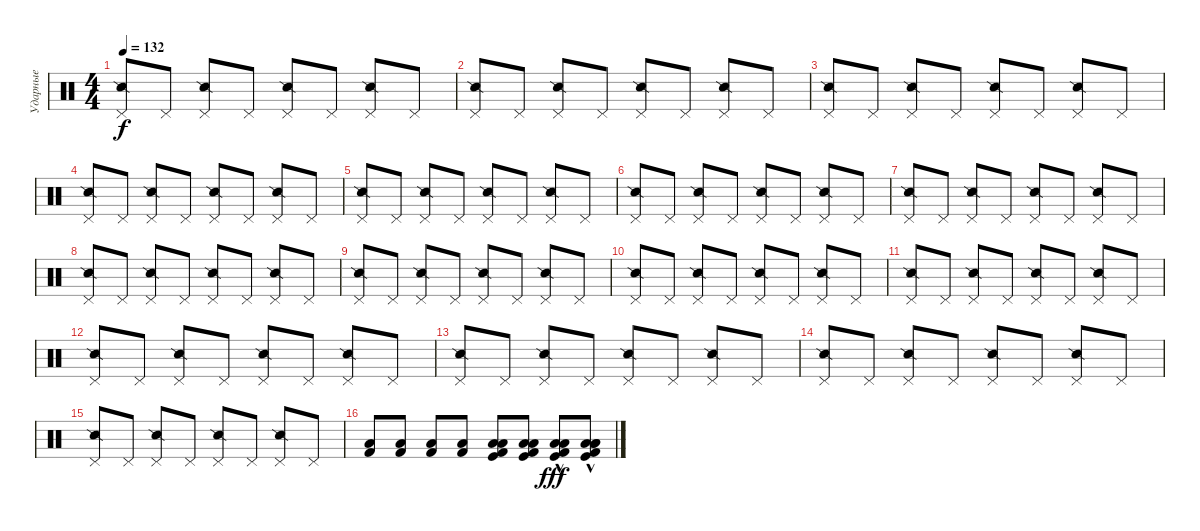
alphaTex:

\track ("Ударные" "Ударные") {instrument percussion}
\staff {score}
\articulation defaults
\ts (4 4)
\tempo 132
\clef neutral
\ks c
("Snare (side stick) 2" "Pedal Hi-Hat (hit)").8{dy f} "Pedal Hi-Hat (hit)".8 ("Pedal Hi-Hat (hit)" "Snare (side stick) 2").8 "Pedal Hi-Hat (hit)".8 ("Pedal Hi-Hat (hit)" "Snare (side stick) 2").8 "Pedal Hi-Hat (hit)".8 ("Pedal Hi-Hat (hit)" "Snare (side stick) 2").8 "Pedal Hi-Hat (hit)".8 |
("Snare (side stick) 2" "Pedal Hi-Hat (hit)").8 "Pedal Hi-Hat (hit)".8 ("Pedal Hi-Hat (hit)" "Snare (side stick) 2").8 "Pedal Hi-Hat (hit)".8 ("Pedal Hi-Hat (hit)" "Snare (side stick) 2").8 "Pedal Hi-Hat (hit)".8 ("Pedal Hi-Hat (hit)" "Snare (side stick) 2").8 "Pedal Hi-Hat (hit)".8 |
("Snare (side stick) 2" "Pedal Hi-Hat (hit)").8 "Pedal Hi-Hat (hit)".8 ("Pedal Hi-Hat (hit)" "Snare (side stick) 2").8 "Pedal Hi-Hat (hit)".8 ("Pedal Hi-Hat (hit)" "Snare (side stick) 2").8 "Pedal Hi-Hat (hit)".8 ("Pedal Hi-Hat (hit)" "Snare (side stick) 2").8 "Pedal Hi-Hat (hit)".8 |
("Snare (side stick) 2" "Pedal Hi-Hat (hit)").8 "Pedal Hi-Hat (hit)".8 ("Pedal Hi-Hat (hit)" "Snare (side stick) 2").8 "Pedal Hi-Hat (hit)".8 ("Pedal Hi-Hat (hit)" "Snare (side stick) 2").8 "Pedal Hi-Hat (hit)".8 ("Pedal Hi-Hat (hit)" "Snare (side stick) 2").8 "Pedal Hi-Hat (hit)".8 |
("Snare (side stick) 2" "Pedal Hi-Hat (hit)").8 "Pedal Hi-Hat (hit)".8 ("Pedal Hi-Hat (hit)" "Snare (side stick) 2").8 "Pedal Hi-Hat (hit)".8 ("Pedal Hi-Hat (hit)" "Snare (side stick) 2").8 "Pedal Hi-Hat (hit)".8 ("Pedal Hi-Hat (hit)" "Snare (side stick) 2").8 "Pedal Hi-Hat (hit)".8 |
("Snare (side stick) 2" "Pedal Hi-Hat (hit)").8 "Pedal Hi-Hat (hit)".8 ("Pedal Hi-Hat (hit)" "Snare (side stick) 2").8 "Pedal Hi-Hat (hit)".8 ("Pedal Hi-Hat (hit)" "Snare (side stick) 2").8 "Pedal Hi-Hat (hit)".8 ("Pedal Hi-Hat (hit)" "Snare (side stick) 2").8 "Pedal Hi-Hat (hit)".8 |
("Snare (side stick) 2" "Pedal Hi-Hat (hit)").8 "Pedal Hi-Hat (hit)".8 ("Pedal Hi-Hat (hit)" "Snare (side stick) 2").8 "Pedal Hi-Hat (hit)".8 ("Pedal Hi-Hat (hit)" "Snare (side stick) 2").8 "Pedal Hi-Hat (hit)".8 ("Pedal Hi-Hat (hit)" "Snare (side stick) 2").8 "Pedal Hi-Hat (hit)".8 |
("Snare (side stick) 2" "Pedal Hi-Hat (hit)").8 "Pedal Hi-Hat (hit)".8 ("Pedal Hi-Hat (hit)" "Snare (side stick) 2").8 "Pedal Hi-Hat (hit)".8 ("Pedal Hi-Hat (hit)" "Snare (side stick) 2").8 "Pedal Hi-Hat (hit)".8 ("Pedal Hi-Hat (hit)" "Snare (side stick) 2").8 "Pedal Hi-Hat (hit)".8 |
("Snare (side stick) 2" "Pedal Hi-Hat (hit)").8 "Pedal Hi-Hat (hit)".8 ("Pedal Hi-Hat (hit)" "Snare (side stick) 2").8 "Pedal Hi-Hat (hit)".8 ("Pedal Hi-Hat (hit)" "Snare (side stick) 2").8 "Pedal Hi-Hat (hit)".8 ("Pedal Hi-Hat (hit)" "Snare (side stick) 2").8 "Pedal Hi-Hat (hit)".8 |
("Snare (side stick) 2" "Pedal Hi-Hat (hit)").8 "Pedal Hi-Hat (hit)".8 ("Pedal Hi-Hat (hit)" "Snare (side stick) 2").8 "Pedal Hi-Hat (hit)".8 ("Pedal Hi-Hat (hit)" "Snare (side stick) 2").8 "Pedal Hi-Hat (hit)".8 ("Pedal Hi-Hat (hit)" "Snare (side stick) 2").8 "Pedal Hi-Hat (hit)".8 |
("Snare (side stick) 2" "Pedal Hi-Hat (hit)").8 "Pedal Hi-Hat (hit)".8 ("Pedal Hi-Hat (hit)" "Snare (side stick) 2").8 "Pedal Hi-Hat (hit)".8 ("Pedal Hi-Hat (hit)" "Snare (side stick) 2").8 "Pedal Hi-Hat (hit)".8 ("Pedal Hi-Hat (hit)" "Snare (side stick) 2").8 "Pedal Hi-Hat (hit)".8 |
("Snare (side stick) 2" "Pedal Hi-Hat (hit)").8 "Pedal Hi-Hat (hit)".8 ("Pedal Hi-Hat (hit)" "Snare (side stick) 2").8 "Pedal Hi-Hat (hit)".8 ("Pedal Hi-Hat (hit)" "Snare (side stick) 2").8 "Pedal Hi-Hat (hit)".8 ("Pedal Hi-Hat (hit)" "Snare (side stick) 2").8 "Pedal Hi-Hat (hit)".8 |
("Snare (side stick) 2" "Pedal Hi-Hat (hit)").8 "Pedal Hi-Hat (hit)".8 ("Pedal Hi-Hat (hit)" "Snare (side stick) 2").8 "Pedal Hi-Hat (hit)".8 ("Pedal Hi-Hat (hit)" "Snare (side stick) 2").8 "Pedal Hi-Hat (hit)".8 ("Pedal Hi-Hat (hit)" "Snare (side stick) 2").8 "Pedal Hi-Hat (hit)".8 |
("Snare (side stick) 2" "Pedal Hi-Hat (hit)").8 "Pedal Hi-Hat (hit)".8 ("Pedal Hi-Hat (hit)" "Snare (side stick) 2").8 "Pedal Hi-Hat (hit)".8 ("Pedal Hi-Hat (hit)" "Snare (side stick) 2").8 "Pedal Hi-Hat (hit)".8 ("Pedal Hi-Hat (hit)" "Snare (side stick) 2").8 "Pedal Hi-Hat (hit)".8 |
("Snare (side stick) 2" "Pedal Hi-Hat (hit)").8 "Pedal Hi-Hat (hit)".8 ("Pedal Hi-Hat (hit)" "Snare (side stick) 2").8 "Pedal Hi-Hat (hit)".8 ("Pedal Hi-Hat (hit)" "Snare (side stick) 2").8 "Pedal Hi-Hat (hit)".8 ("Pedal Hi-Hat (hit)" "Snare (side stick) 2").8 "Pedal Hi-Hat (hit)".8 |
("Low Tom (hit)" "Kick (hit) 2").8{volume 16} ("Low Tom (hit)" "Kick (hit) 2").8 ("Low Tom (hit)" "Kick (hit) 2").8 ("Low Tom (hit)" "Kick (hit) 2").8 ("Low Tom (hit)" "Kick (hit)" "Low Tom (hit)" "Kick (hit) 2").8 ("Low Tom (hit)" "Kick (hit)" "Low Tom (hit)" "Kick (hit) 2").8 ("Low Tom (hit)" "Kick (hit)"{hac} "Low Tom (hit)" "Kick (hit) 2").8{dy fff} ("Low Tom (hit)" "Low Tom (hit)" "Kick (hit)"{hac} "Low Tom (hit)" "Kick (hit) 2").8
